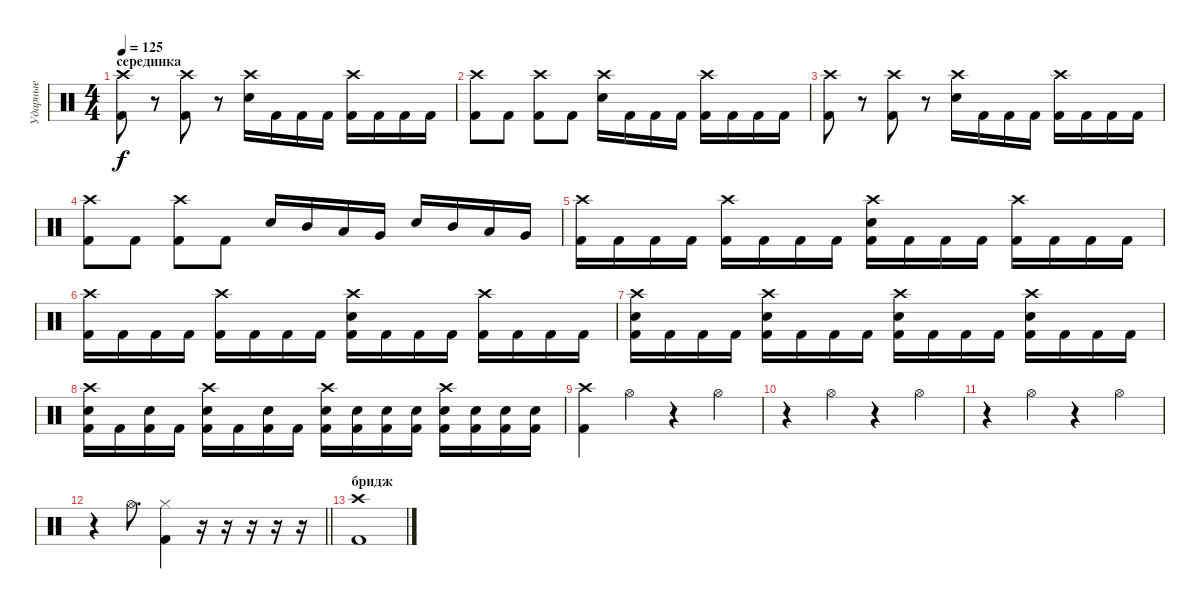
\track ("Ударные" "Ударные") {instrument percussion}
\staff {score}
\articulation defaults
\ts (4 4)
\section ("" "серединка")
\tempo 125
\clef neutral
\ks c
("Crash high (hit)" "Kick (hit) 2").8{dy f} r.8 ("Crash high (hit)" "Kick (hit) 2").8 r.8 ("Crash high (hit)" "Electric Snare (hit)").16 "Kick (hit) 2".16 "Kick (hit) 2".16 "Kick (hit) 2".16 ("Crash high (hit)" "Kick (hit) 2").16 "Kick (hit) 2".16 "Kick (hit) 2".16 "Kick (hit) 2".16 |
("Crash high (hit)" "Kick (hit) 2").8 "Kick (hit) 2".8 ("Crash high (hit)" "Kick (hit) 2").8 "Kick (hit) 2".8 ("Crash high (hit)" "Electric Snare (hit)").16 "Kick (hit) 2".16 "Kick (hit) 2".16 "Kick (hit) 2".16 ("Crash high (hit)" "Kick (hit) 2").16 "Kick (hit) 2".16 "Kick (hit) 2".16 "Kick (hit) 2".16 |
("Crash high (hit)" "Kick (hit) 2").8 r.8 ("Crash high (hit)" "Kick (hit) 2").8 r.8 ("Crash high (hit)" "Electric Snare (hit)").16 "Kick (hit) 2".16 "Kick (hit) 2".16 "Kick (hit) 2".16 ("Crash high (hit)" "Kick (hit) 2").16 "Kick (hit) 2".16 "Kick (hit) 2".16 "Kick (hit) 2".16 |
("Crash high (hit)" "Kick (hit) 2").8 "Kick (hit) 2".8 ("Crash high (hit)" "Kick (hit) 2").8 "Kick (hit) 2".8 "Electric Snare (hit)".16 "Mid Tom (hit)".16 "Low Tom (hit)".16 "Very Low Tom (hit)".16 "Electric Snare (hit)".16 "Mid Tom (hit)".16 "Low Tom (hit)".16 "Very Low Tom (hit)".16 |
("Crash high (hit)" "Kick (hit) 2").16 "Kick (hit) 2".16 "Kick (hit) 2".16 "Kick (hit) 2".16 ("Crash high (hit)" "Kick (hit) 2").16 "Kick (hit) 2".16 "Kick (hit) 2".16 "Kick (hit) 2".16 ("Crash high (hit)" "Electric Snare (hit)" "Kick (hit) 2").16 "Kick (hit) 2".16 "Kick (hit) 2".16 "Kick (hit) 2".16 ("Crash high (hit)" "Kick (hit) 2").16 "Kick (hit) 2".16 "Kick (hit) 2".16 "Kick (hit) 2".16 |
("Crash high (hit)" "Kick (hit) 2").16 "Kick (hit) 2".16 "Kick (hit) 2".16 "Kick (hit) 2".16 ("Crash high (hit)" "Kick (hit) 2").16 "Kick (hit) 2".16 "Kick (hit) 2".16 "Kick (hit) 2".16 ("Crash high (hit)" "Electric Snare (hit)" "Kick (hit) 2").16 "Kick (hit) 2".16 "Kick (hit) 2".16 "Kick (hit) 2".16 ("Crash high (hit)" "Kick (hit) 2").16 "Kick (hit) 2".16 "Kick (hit) 2".16 "Kick (hit) 2".16 |
("Crash high (hit)" "Electric Snare (hit)" "Kick (hit) 2").16 "Kick (hit) 2".16 "Kick (hit) 2".16 "Kick (hit) 2".16 ("Crash high (hit)" "Electric Snare (hit)" "Kick (hit) 2").16 "Kick (hit) 2".16 "Kick (hit) 2".16 "Kick (hit) 2".16 ("Crash high (hit)" "Electric Snare (hit)" "Kick (hit) 2").16 "Kick (hit) 2".16 "Kick (hit) 2".16 "Kick (hit) 2".16 ("Crash high (hit)" "Electric Snare (hit)" "Kick (hit) 2").16 "Kick (hit) 2".16 "Kick (hit) 2".16 "Kick (hit) 2".16 |
("Crash high (hit)" "Electric Snare (hit)" "Kick (hit) 2").16 "Kick (hit) 2".16 ("Electric Snare (hit)" "Kick (hit) 2").16 "Kick (hit) 2".16 ("Crash high (hit)" "Electric Snare (hit)" "Kick (hit) 2").16 "Kick (hit) 2".16 ("Electric Snare (hit)" "Kick (hit) 2").16 "Kick (hit) 2".16 ("Crash high (hit)" "Electric Snare (hit)" "Kick (hit) 2").16 ("Electric Snare (hit)" "Kick (hit) 2").16 ("Electric Snare (hit)" "Kick (hit) 2").16 ("Electric Snare (hit)" "Kick (hit) 2").16 ("Crash high (hit)" "Electric Snare (hit)" "Kick (hit) 2").16 ("Electric Snare (hit)" "Kick (hit) 2").16 ("Electric Snare (hit)" "Kick (hit) 2").16 ("Electric Snare (hit)" "Kick (hit) 2").16 |
("Crash high (hit)" "Kick (hit) 2").4 "Hi-Hat (open)".4 r.4 "Hi-Hat (open)".4 |
r.4 "Hi-Hat (open)".4 r.4 "Hi-Hat (open)".4 |
r.4 "Hi-Hat (open)".4 r.4 "Hi-Hat (open)".4 |
\barLineRight lightlight
r.4 "Hi-Hat (open)".8{d} ("Kick (hit) 2" "Hi-Hat (closed)").4 r.16 r.16 r.16 r.16 r.16 |
\section ("" "бридж")
("Crash high (hit)" "Kick (hit) 2").1
